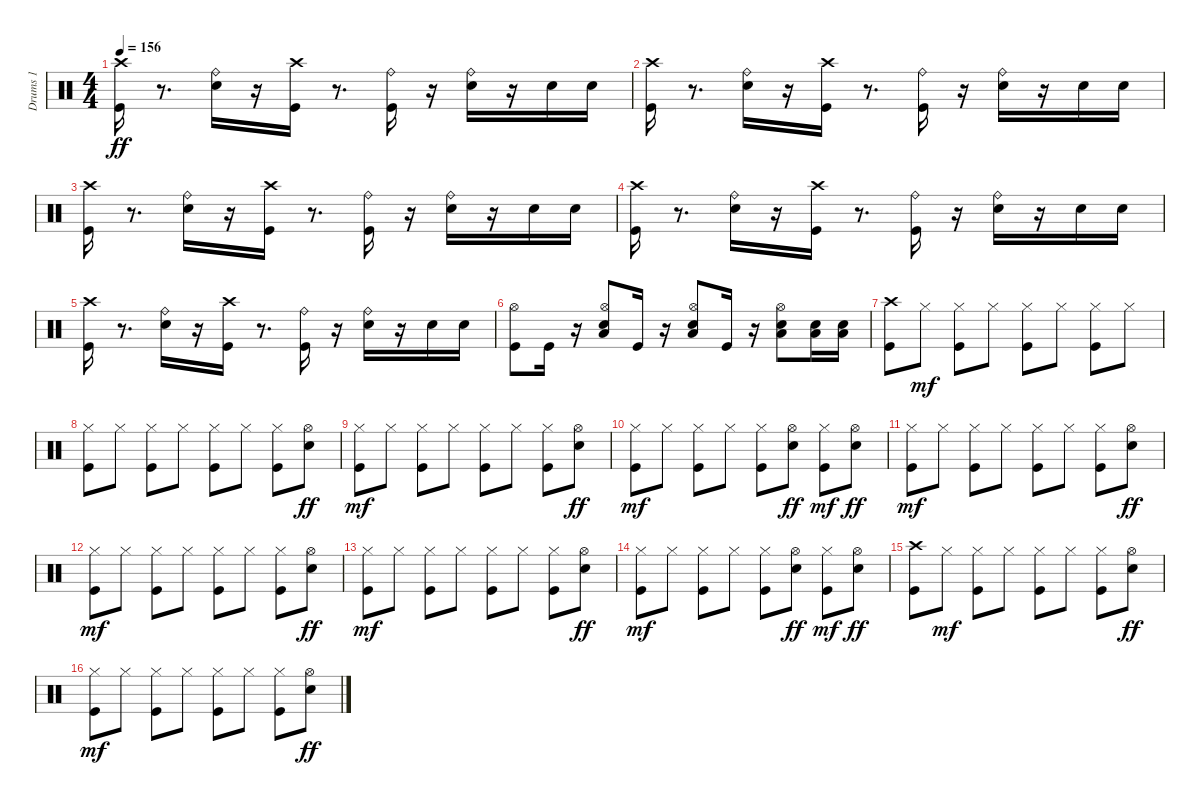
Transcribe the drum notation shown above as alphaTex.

\track ("Drums 1" "Drums 1") {instrument percussion}
\staff {score}
\articulation defaults
\ts (4 4)
\tempo 156
\clef neutral
\ks c
("Kick (hit)" "Crash high (hit)").16{dy ff} r.8{d} ("Ride (bell)" "Electric Snare (hit)").16 r.16 ("Crash high (hit)" "Kick (hit)").16 r.8{d} ("Ride (bell)" "Kick (hit)").16 r.16 ("Electric Snare (hit)" "Ride (bell)").16 r.16 "Electric Snare (hit)".16 "Electric Snare (hit)".16 |
("Kick (hit)" "Crash high (hit)").16 r.8{d} ("Ride (bell)" "Electric Snare (hit)").16 r.16 ("Crash high (hit)" "Kick (hit)").16 r.8{d} ("Ride (bell)" "Kick (hit)").16 r.16 ("Electric Snare (hit)" "Ride (bell)").16 r.16 "Electric Snare (hit)".16 "Electric Snare (hit)".16 |
("Kick (hit)" "Crash high (hit)").16 r.8{d} ("Ride (bell)" "Electric Snare (hit)").16 r.16 ("Crash high (hit)" "Kick (hit)").16 r.8{d} ("Ride (bell)" "Kick (hit)").16 r.16 ("Electric Snare (hit)" "Ride (bell)").16 r.16 "Electric Snare (hit)".16 "Electric Snare (hit)".16 |
("Kick (hit)" "Crash high (hit)").16 r.8{d} ("Ride (bell)" "Electric Snare (hit)").16 r.16 ("Crash high (hit)" "Kick (hit)").16 r.8{d} ("Ride (bell)" "Kick (hit)").16 r.16 ("Electric Snare (hit)" "Ride (bell)").16 r.16 "Electric Snare (hit)".16 "Electric Snare (hit)".16 |
("Kick (hit)" "Crash high (hit)").16 r.8{d} ("Ride (bell)" "Electric Snare (hit)").16 r.16 ("Crash high (hit)" "Kick (hit)").16 r.8{d} ("Ride (bell)" "Kick (hit)").16 r.16 ("Electric Snare (hit)" "Ride (bell)").16 r.16 "Electric Snare (hit)".16 "Electric Snare (hit)".16 |
("Hi-Hat (open)" "Kick (hit)").8 "Kick (hit)".16 r.16 ("Hi-Hat (open)" "Low Tom (hit)" "Electric Snare (hit)").8 "Kick (hit)".16 r.16 ("Hi-Hat (open)" "Low Tom (hit)" "Electric Snare (hit)").8 "Kick (hit)".16 r.16 ("Hi-Hat (open)" "Electric Snare (hit)" "Low Tom (hit)").8 ("Low Tom (hit)" "Electric Snare (hit)").16 ("Electric Snare (hit)" "Low Tom (hit)").16 |
("Kick (hit)" "Crash high (hit)").8 "Hi-Hat (closed)".8{dy mf} ("Kick (hit)" "Hi-Hat (closed)").8 "Hi-Hat (closed)".8 ("Kick (hit)" "Hi-Hat (closed)").8 "Hi-Hat (closed)".8 ("Kick (hit)" "Hi-Hat (closed)").8 "Hi-Hat (closed)".8 |
("Kick (hit)" "Hi-Hat (closed)").8 "Hi-Hat (closed)".8 ("Kick (hit)" "Hi-Hat (closed)").8 "Hi-Hat (closed)".8 ("Kick (hit)" "Hi-Hat (closed)").8 "Hi-Hat (closed)".8 ("Kick (hit)" "Hi-Hat (closed)").8 ("Electric Snare (hit)" "Hi-Hat (open)").8{dy ff} |
("Kick (hit)" "Hi-Hat (closed)").8{dy mf} "Hi-Hat (closed)".8 ("Kick (hit)" "Hi-Hat (closed)").8 "Hi-Hat (closed)".8 ("Kick (hit)" "Hi-Hat (closed)").8 "Hi-Hat (closed)".8 ("Kick (hit)" "Hi-Hat (closed)").8 ("Electric Snare (hit)" "Hi-Hat (open)").8{dy ff} |
("Kick (hit)" "Hi-Hat (closed)").8{dy mf} "Hi-Hat (closed)".8 ("Kick (hit)" "Hi-Hat (closed)").8 "Hi-Hat (closed)".8 ("Kick (hit)" "Hi-Hat (closed)").8 ("Hi-Hat (open)" "Electric Snare (hit)").8{dy ff} ("Kick (hit)" "Hi-Hat (closed)").8{dy mf} ("Hi-Hat (open)" "Electric Snare (hit)").8{dy ff} |
("Kick (hit)" "Hi-Hat (closed)").8{dy mf} "Hi-Hat (closed)".8 ("Kick (hit)" "Hi-Hat (closed)").8 "Hi-Hat (closed)".8 ("Kick (hit)" "Hi-Hat (closed)").8 "Hi-Hat (closed)".8 ("Kick (hit)" "Hi-Hat (closed)").8 ("Electric Snare (hit)" "Hi-Hat (open)").8{dy ff} |
("Kick (hit)" "Hi-Hat (closed)").8{dy mf} "Hi-Hat (closed)".8 ("Kick (hit)" "Hi-Hat (closed)").8 "Hi-Hat (closed)".8 ("Kick (hit)" "Hi-Hat (closed)").8 "Hi-Hat (closed)".8 ("Kick (hit)" "Hi-Hat (closed)").8 ("Electric Snare (hit)" "Hi-Hat (open)").8{dy ff} |
("Kick (hit)" "Hi-Hat (closed)").8{dy mf} "Hi-Hat (closed)".8 ("Kick (hit)" "Hi-Hat (closed)").8 "Hi-Hat (closed)".8 ("Kick (hit)" "Hi-Hat (closed)").8 "Hi-Hat (closed)".8 ("Kick (hit)" "Hi-Hat (closed)").8 ("Electric Snare (hit)" "Hi-Hat (open)").8{dy ff} |
("Kick (hit)" "Hi-Hat (closed)").8{dy mf} "Hi-Hat (closed)".8 ("Kick (hit)" "Hi-Hat (closed)").8 "Hi-Hat (closed)".8 ("Kick (hit)" "Hi-Hat (closed)").8 ("Hi-Hat (open)" "Electric Snare (hit)").8{dy ff} ("Kick (hit)" "Hi-Hat (closed)").8{dy mf} ("Hi-Hat (open)" "Electric Snare (hit)").8{dy ff} |
("Kick (hit)" "Crash high (hit)").8 "Hi-Hat (closed)".8{dy mf} ("Kick (hit)" "Hi-Hat (closed)").8 "Hi-Hat (closed)".8 ("Kick (hit)" "Hi-Hat (closed)").8 "Hi-Hat (closed)".8 ("Kick (hit)" "Hi-Hat (closed)").8 ("Electric Snare (hit)" "Hi-Hat (open)").8{dy ff} |
("Kick (hit)" "Hi-Hat (closed)").8{dy mf} "Hi-Hat (closed)".8 ("Kick (hit)" "Hi-Hat (closed)").8 "Hi-Hat (closed)".8 ("Kick (hit)" "Hi-Hat (closed)").8 "Hi-Hat (closed)".8 ("Kick (hit)" "Hi-Hat (closed)").8 ("Electric Snare (hit)" "Hi-Hat (open)").8{dy ff}
